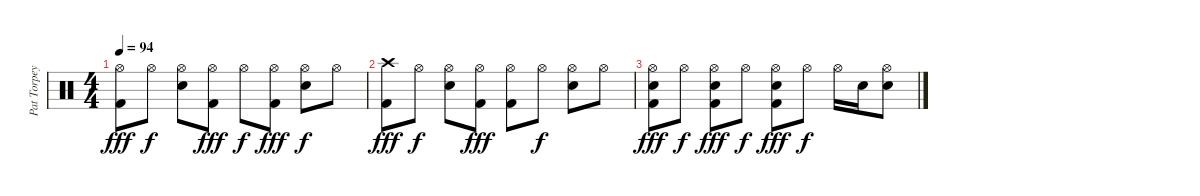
\track ("Pat Torpey (Toro)" "Pat Torpey") {instrument percussion}
\staff {score}
\articulation defaults
\ts (4 4)
\tempo 94
\clef neutral
\ks c
("Hi-Hat (open)" "Kick (hit) 2").8{dy fff} "Hi-Hat (open)".8{dy f} ("Hi-Hat (open)" "Snare (hit) 2").8 ("Hi-Hat (open)" "Kick (hit) 2").8{dy fff} "Hi-Hat (open)".8{dy f} ("Hi-Hat (open)" "Kick (hit) 2").8{dy fff} ("Hi-Hat (open)" "Snare (hit) 2").8{dy f} "Hi-Hat (open)".8 |
("Crash high (hit)" "Kick (hit) 2").8{dy fff volume 1} "Hi-Hat (open)".8{dy f} ("Hi-Hat (open)" "Snare (hit) 2").8 ("Hi-Hat (open)" "Kick (hit) 2").8{dy fff} ("Hi-Hat (open)" "Kick (hit) 2").8 "Hi-Hat (open)".8{dy f} ("Hi-Hat (open)" "Snare (hit) 2").8 "Hi-Hat (open)".8 |
("Hi-Hat (open)" "Snare (hit) 2" "Kick (hit) 2").8{dy fff} "Hi-Hat (open)".8{dy f} ("Hi-Hat (open)" "Snare (hit) 2" "Kick (hit) 2").8{dy fff} "Hi-Hat (open)".8{dy f} ("Hi-Hat (open)" "Snare (hit) 2" "Kick (hit) 2").8{dy fff} "Hi-Hat (open)".8{dy f} "Hi-Hat (open)".16 "Snare (hit) 2".16 ("Hi-Hat (open)" "Snare (hit) 2").8
